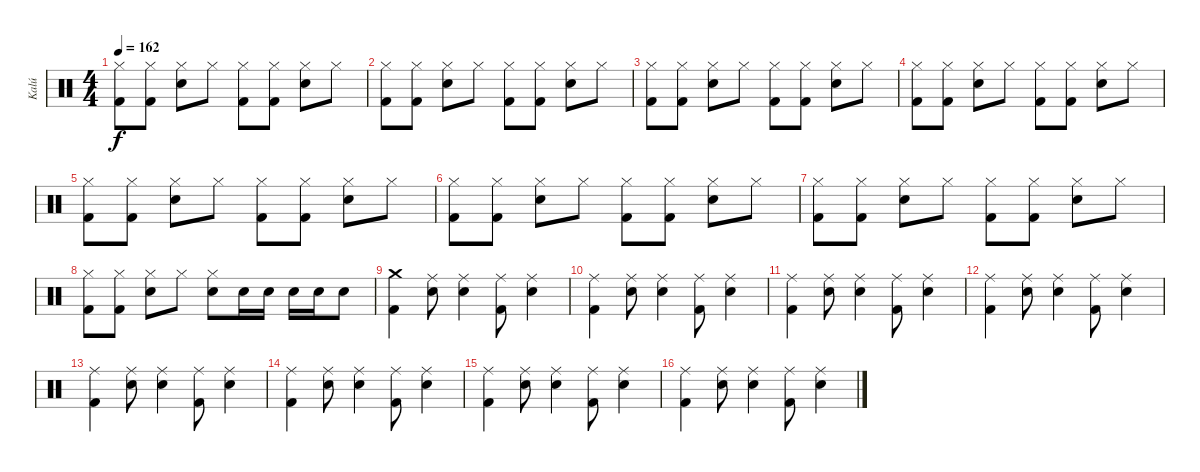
\track ("Kalú" "Kalú") {instrument percussion}
\staff {score}
\articulation defaults
\ts (4 4)
\tempo 162
\clef neutral
\ks c
("Hi-Hat (closed)" "Kick (hit) 2").8{dy f} ("Hi-Hat (closed)" "Kick (hit) 2").8 ("Hi-Hat (closed)" "Electric Snare (hit)").8 "Hi-Hat (closed)".8 ("Hi-Hat (closed)" "Kick (hit) 2").8 ("Hi-Hat (closed)" "Kick (hit) 2").8 ("Hi-Hat (closed)" "Electric Snare (hit)").8 "Hi-Hat (closed)".8 |
("Hi-Hat (closed)" "Kick (hit) 2").8 ("Hi-Hat (closed)" "Kick (hit) 2").8 ("Hi-Hat (closed)" "Electric Snare (hit)").8 "Hi-Hat (closed)".8 ("Hi-Hat (closed)" "Kick (hit) 2").8 ("Hi-Hat (closed)" "Kick (hit) 2").8 ("Hi-Hat (closed)" "Electric Snare (hit)").8 "Hi-Hat (closed)".8 |
("Hi-Hat (closed)" "Kick (hit) 2").8 ("Hi-Hat (closed)" "Kick (hit) 2").8 ("Hi-Hat (closed)" "Electric Snare (hit)").8 "Hi-Hat (closed)".8 ("Hi-Hat (closed)" "Kick (hit) 2").8 ("Hi-Hat (closed)" "Kick (hit) 2").8 ("Hi-Hat (closed)" "Electric Snare (hit)").8 "Hi-Hat (closed)".8 |
("Hi-Hat (closed)" "Kick (hit) 2").8 ("Hi-Hat (closed)" "Kick (hit) 2").8 ("Hi-Hat (closed)" "Electric Snare (hit)").8 "Hi-Hat (closed)".8 ("Hi-Hat (closed)" "Kick (hit) 2").8 ("Hi-Hat (closed)" "Kick (hit) 2").8 ("Hi-Hat (closed)" "Electric Snare (hit)").8 "Hi-Hat (closed)".8 |
("Hi-Hat (closed)" "Kick (hit) 2").8 ("Hi-Hat (closed)" "Kick (hit) 2").8 ("Hi-Hat (closed)" "Electric Snare (hit)").8 "Hi-Hat (closed)".8 ("Hi-Hat (closed)" "Kick (hit) 2").8 ("Hi-Hat (closed)" "Kick (hit) 2").8 ("Hi-Hat (closed)" "Electric Snare (hit)").8 "Hi-Hat (closed)".8 |
("Hi-Hat (closed)" "Kick (hit) 2").8 ("Hi-Hat (closed)" "Kick (hit) 2").8 ("Hi-Hat (closed)" "Electric Snare (hit)").8 "Hi-Hat (closed)".8 ("Hi-Hat (closed)" "Kick (hit) 2").8 ("Hi-Hat (closed)" "Kick (hit) 2").8 ("Hi-Hat (closed)" "Electric Snare (hit)").8 "Hi-Hat (closed)".8 |
("Hi-Hat (closed)" "Kick (hit) 2").8 ("Hi-Hat (closed)" "Kick (hit) 2").8 ("Hi-Hat (closed)" "Electric Snare (hit)").8 "Hi-Hat (closed)".8 ("Hi-Hat (closed)" "Kick (hit) 2").8 ("Hi-Hat (closed)" "Kick (hit) 2").8 ("Hi-Hat (closed)" "Electric Snare (hit)").8 "Hi-Hat (closed)".8 |
("Hi-Hat (closed)" "Kick (hit) 2").8 ("Hi-Hat (closed)" "Kick (hit) 2").8 ("Hi-Hat (closed)" "Electric Snare (hit)").8 "Hi-Hat (closed)".8 ("Hi-Hat (closed)" "Electric Snare (hit)").8 "Electric Snare (hit)".16 "Electric Snare (hit)".16 "Electric Snare (hit)".16 "Electric Snare (hit)".16 "Electric Snare (hit)".8 |
("Crash medium (hit)" "Kick (hit) 2").4 ("Ride (middle)" "Electric Snare (hit)").8 ("Ride (middle)" "Electric Snare (hit)").4 ("Ride (middle)" "Kick (hit) 2").8 ("Ride (middle)" "Electric Snare (hit)").4 |
("Ride (middle)" "Kick (hit) 2").4 ("Ride (middle)" "Electric Snare (hit)").8 ("Ride (middle)" "Electric Snare (hit)").4 ("Ride (middle)" "Kick (hit) 2").8 ("Ride (middle)" "Electric Snare (hit)").4 |
("Ride (middle)" "Kick (hit) 2").4 ("Ride (middle)" "Electric Snare (hit)").8 ("Ride (middle)" "Electric Snare (hit)").4 ("Ride (middle)" "Kick (hit) 2").8 ("Ride (middle)" "Electric Snare (hit)").4 |
("Ride (middle)" "Kick (hit) 2").4 ("Ride (middle)" "Electric Snare (hit)").8 ("Ride (middle)" "Electric Snare (hit)").4 ("Ride (middle)" "Kick (hit) 2").8 ("Ride (middle)" "Electric Snare (hit)").4 |
("Ride (middle)" "Kick (hit) 2").4 ("Ride (middle)" "Electric Snare (hit)").8 ("Ride (middle)" "Electric Snare (hit)").4 ("Ride (middle)" "Kick (hit) 2").8 ("Ride (middle)" "Electric Snare (hit)").4 |
("Ride (middle)" "Kick (hit) 2").4 ("Ride (middle)" "Electric Snare (hit)").8 ("Ride (middle)" "Electric Snare (hit)").4 ("Ride (middle)" "Kick (hit) 2").8 ("Ride (middle)" "Electric Snare (hit)").4 |
("Ride (middle)" "Kick (hit) 2").4 ("Ride (middle)" "Electric Snare (hit)").8 ("Ride (middle)" "Electric Snare (hit)").4 ("Ride (middle)" "Kick (hit) 2").8 ("Ride (middle)" "Electric Snare (hit)").4 |
("Ride (middle)" "Kick (hit) 2").4 ("Ride (middle)" "Electric Snare (hit)").8 ("Ride (middle)" "Electric Snare (hit)").4 ("Ride (middle)" "Kick (hit) 2").8 ("Ride (middle)" "Electric Snare (hit)").4
